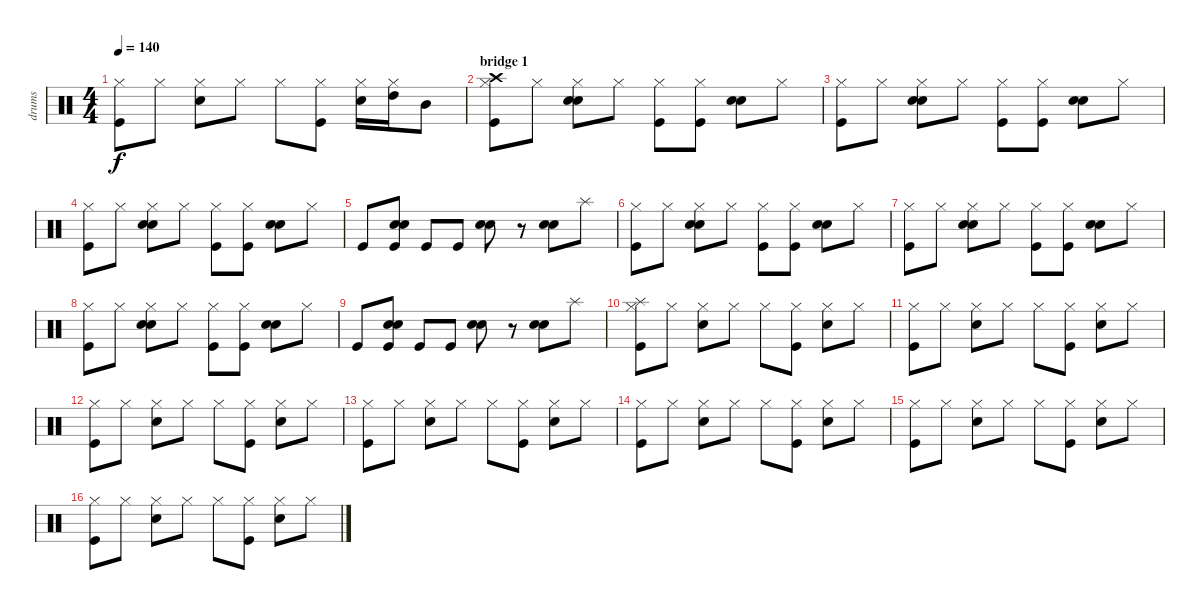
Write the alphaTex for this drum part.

\track ("drums" "drums") {instrument percussion}
\staff {score}
\articulation defaults
\ts (4 4)
\tempo 140
\clef neutral
\ks c
("Hi-Hat (closed)" "Kick (hit)").8{dy f} "Hi-Hat (closed)".8 ("Hi-Hat (closed)" "Snare (hit) 2").8 "Hi-Hat (closed)".8 "Hi-Hat (closed)".8 ("Hi-Hat (closed)" "Kick (hit)").8 ("Hi-Hat (closed)" "Snare (hit) 2").16 ("Hi-Hat (closed)" "High Tom (hit)").16 "Mid Tom (hit)".8 |
\section ("" "bridge 1")
("Crash high (hit)" "Hi-Hat (closed)" "Kick (hit)").8 "Hi-Hat (closed)".8 ("Hi-Hat (closed)" "Snare (hit) 2" "Electric Snare (hit)").8 "Hi-Hat (closed)".8 ("Hi-Hat (closed)" "Kick (hit)").8 ("Hi-Hat (closed)" "Kick (hit)").8 ("Snare (hit) 2" "Electric Snare (hit)").8 "Hi-Hat (closed)".8 |
("Hi-Hat (closed)" "Kick (hit)").8 "Hi-Hat (closed)".8 ("Hi-Hat (closed)" "Snare (hit) 2" "Electric Snare (hit)").8 "Hi-Hat (closed)".8 ("Hi-Hat (closed)" "Kick (hit)").8 ("Hi-Hat (closed)" "Kick (hit)").8 ("Snare (hit) 2" "Electric Snare (hit)").8 "Hi-Hat (closed)".8 |
("Hi-Hat (closed)" "Kick (hit)").8 "Hi-Hat (closed)".8 ("Hi-Hat (closed)" "Snare (hit) 2" "Electric Snare (hit)").8 "Hi-Hat (closed)".8 ("Hi-Hat (closed)" "Kick (hit)").8 ("Hi-Hat (closed)" "Kick (hit)").8 ("Snare (hit) 2" "Electric Snare (hit)").8 "Hi-Hat (closed)".8 |
"Kick (hit)".8 ("Electric Snare (hit)" "Snare (hit) 2" "Kick (hit)").8 "Kick (hit)".8 "Kick (hit)".8 ("Electric Snare (hit)" "Snare (hit) 2").8 r.8 ("Electric Snare (hit)" "Snare (hit) 2").8 "Splash (hit)".8 |
("Hi-Hat (closed)" "Kick (hit)").8 "Hi-Hat (closed)".8 ("Hi-Hat (closed)" "Snare (hit) 2" "Electric Snare (hit)").8 "Hi-Hat (closed)".8 ("Hi-Hat (closed)" "Kick (hit)").8 ("Hi-Hat (closed)" "Kick (hit)").8 ("Snare (hit) 2" "Electric Snare (hit)").8 "Hi-Hat (closed)".8 |
("Hi-Hat (closed)" "Kick (hit)").8 "Hi-Hat (closed)".8 ("Hi-Hat (closed)" "Snare (hit) 2" "Electric Snare (hit)").8 "Hi-Hat (closed)".8 ("Hi-Hat (closed)" "Kick (hit)").8 ("Hi-Hat (closed)" "Kick (hit)").8 ("Snare (hit) 2" "Electric Snare (hit)").8 "Hi-Hat (closed)".8 |
("Hi-Hat (closed)" "Kick (hit)").8 "Hi-Hat (closed)".8 ("Hi-Hat (closed)" "Snare (hit) 2" "Electric Snare (hit)").8 "Hi-Hat (closed)".8 ("Hi-Hat (closed)" "Kick (hit)").8 ("Hi-Hat (closed)" "Kick (hit)").8 ("Snare (hit) 2" "Electric Snare (hit)").8 "Hi-Hat (closed)".8 |
"Kick (hit)".8 ("Electric Snare (hit)" "Snare (hit) 2" "Kick (hit)").8 "Kick (hit)".8 "Kick (hit)".8 ("Electric Snare (hit)" "Snare (hit) 2").8 r.8 ("Electric Snare (hit)" "Snare (hit) 2").8 "Splash (hit)".8 |
("Splash (hit)" "Hi-Hat (closed)" "Kick (hit)").8 "Hi-Hat (closed)".8 ("Hi-Hat (closed)" "Snare (hit) 2").8 "Hi-Hat (closed)".8 "Hi-Hat (closed)".8 ("Hi-Hat (closed)" "Kick (hit)").8 ("Hi-Hat (closed)" "Snare (hit) 2").8 "Hi-Hat (closed)".8 |
("Hi-Hat (closed)" "Kick (hit)").8 "Hi-Hat (closed)".8 ("Hi-Hat (closed)" "Snare (hit) 2").8 "Hi-Hat (closed)".8 "Hi-Hat (closed)".8 ("Hi-Hat (closed)" "Kick (hit)").8 ("Hi-Hat (closed)" "Snare (hit) 2").8 "Hi-Hat (closed)".8 |
("Hi-Hat (closed)" "Kick (hit)").8 "Hi-Hat (closed)".8 ("Hi-Hat (closed)" "Snare (hit) 2").8 "Hi-Hat (closed)".8 "Hi-Hat (closed)".8 ("Hi-Hat (closed)" "Kick (hit)").8 ("Hi-Hat (closed)" "Snare (hit) 2").8 "Hi-Hat (closed)".8 |
("Hi-Hat (closed)" "Kick (hit)").8 "Hi-Hat (closed)".8 ("Hi-Hat (closed)" "Snare (hit) 2").8 "Hi-Hat (closed)".8 "Hi-Hat (closed)".8 ("Hi-Hat (closed)" "Kick (hit)").8 ("Hi-Hat (closed)" "Snare (hit) 2").8 "Hi-Hat (closed)".8 |
("Hi-Hat (closed)" "Kick (hit)").8 "Hi-Hat (closed)".8 ("Hi-Hat (closed)" "Snare (hit) 2").8 "Hi-Hat (closed)".8 "Hi-Hat (closed)".8 ("Hi-Hat (closed)" "Kick (hit)").8 ("Hi-Hat (closed)" "Snare (hit) 2").8 "Hi-Hat (closed)".8 |
("Hi-Hat (closed)" "Kick (hit)").8 "Hi-Hat (closed)".8 ("Hi-Hat (closed)" "Snare (hit) 2").8 "Hi-Hat (closed)".8 "Hi-Hat (closed)".8 ("Hi-Hat (closed)" "Kick (hit)").8 ("Hi-Hat (closed)" "Snare (hit) 2").8 "Hi-Hat (closed)".8 |
("Hi-Hat (closed)" "Kick (hit)").8 "Hi-Hat (closed)".8 ("Hi-Hat (closed)" "Snare (hit) 2").8 "Hi-Hat (closed)".8 "Hi-Hat (closed)".8 ("Hi-Hat (closed)" "Kick (hit)").8 ("Hi-Hat (closed)" "Snare (hit) 2").8 "Hi-Hat (closed)".8
